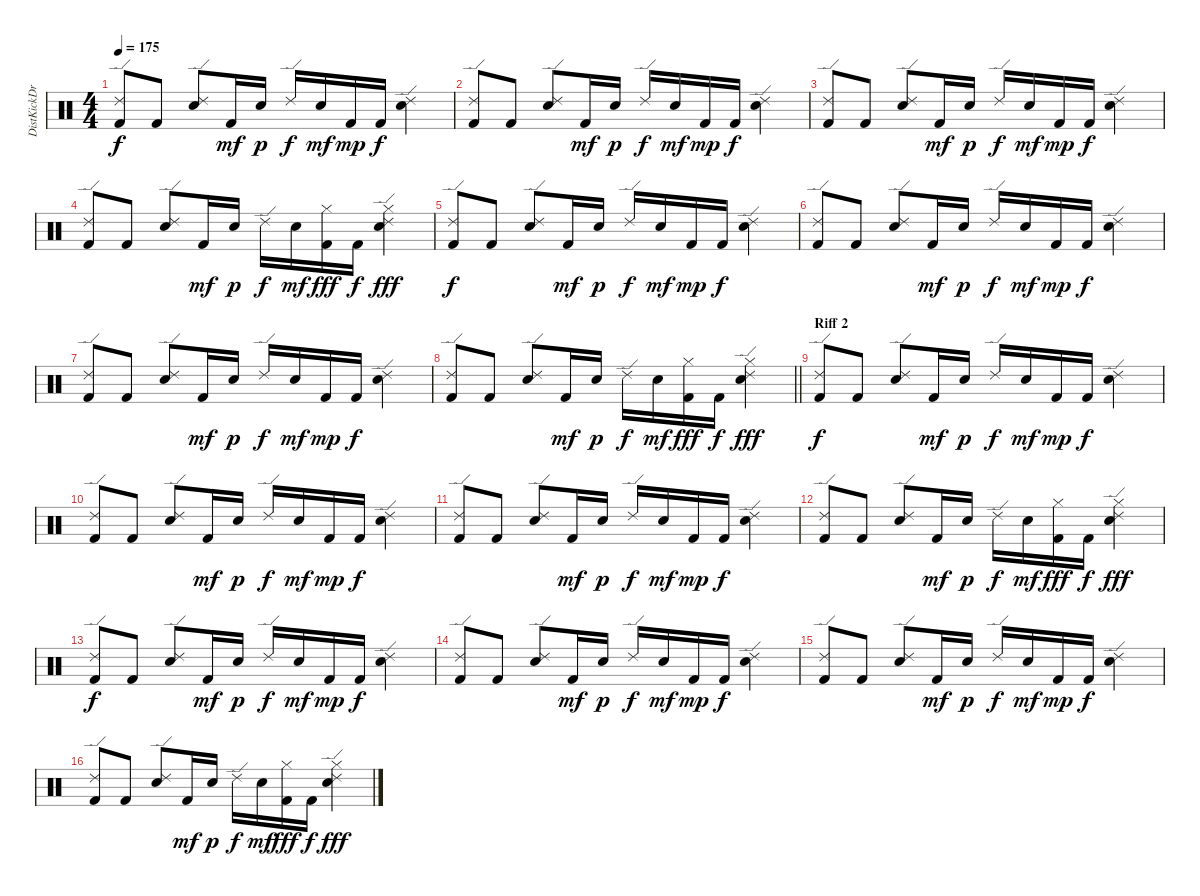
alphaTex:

\track ("DistKickDrums" "DistKickDr") {instrument percussion}
\staff {score}
\articulation defaults
\ts (4 4)
\tempo 175
\clef neutral
\ks c
("Kick (hit) 2" "Ride (edge) 2").8{dy f} "Kick (hit) 2".8 ("Snare (hit) 2" "Ride (edge) 2").8 "Kick (hit) 2".16{dy mf} "Snare (hit) 2".16{dy p} "Ride (edge) 2".16{dy f} "Snare (hit) 2".16{dy mf} "Kick (hit) 2".16{dy mp} "Kick (hit) 2".16{dy f} ("Snare (hit) 2" "Ride (edge) 2").4 |
("Kick (hit) 2" "Ride (edge) 2").8 "Kick (hit) 2".8 ("Snare (hit) 2" "Ride (edge) 2").8 "Kick (hit) 2".16{dy mf} "Snare (hit) 2".16{dy p} "Ride (edge) 2".16{dy f} "Snare (hit) 2".16{dy mf} "Kick (hit) 2".16{dy mp} "Kick (hit) 2".16{dy f} ("Snare (hit) 2" "Ride (edge) 2").4 |
("Kick (hit) 2" "Ride (edge) 2").8 "Kick (hit) 2".8 ("Snare (hit) 2" "Ride (edge) 2").8 "Kick (hit) 2".16{dy mf} "Snare (hit) 2".16{dy p} "Ride (edge) 2".16{dy f} "Snare (hit) 2".16{dy mf} "Kick (hit) 2".16{dy mp} "Kick (hit) 2".16{dy f} ("Snare (hit) 2" "Ride (edge) 2").4 |
("Kick (hit) 2" "Ride (edge) 2").8 "Kick (hit) 2".8 ("Snare (hit) 2" "Ride (edge) 2").8 "Kick (hit) 2".16{dy mf} "Snare (hit) 2".16{dy p} "Ride (edge) 2".16{dy f} "Snare (hit) 2".16{dy mf} ("Kick (hit) 2" "Cowbell high (tip)").16{dy fff} "Kick (hit) 2".16{dy f} ("Snare (hit) 2" "Ride (edge) 2" "Cowbell high (tip)").4{dy fff} |
("Kick (hit) 2" "Ride (edge) 2").8{dy f} "Kick (hit) 2".8 ("Snare (hit) 2" "Ride (edge) 2").8 "Kick (hit) 2".16{dy mf} "Snare (hit) 2".16{dy p} "Ride (edge) 2".16{dy f} "Snare (hit) 2".16{dy mf} "Kick (hit) 2".16{dy mp} "Kick (hit) 2".16{dy f} ("Snare (hit) 2" "Ride (edge) 2").4 |
("Kick (hit) 2" "Ride (edge) 2").8 "Kick (hit) 2".8 ("Snare (hit) 2" "Ride (edge) 2").8 "Kick (hit) 2".16{dy mf} "Snare (hit) 2".16{dy p} "Ride (edge) 2".16{dy f} "Snare (hit) 2".16{dy mf} "Kick (hit) 2".16{dy mp} "Kick (hit) 2".16{dy f} ("Snare (hit) 2" "Ride (edge) 2").4 |
("Kick (hit) 2" "Ride (edge) 2").8 "Kick (hit) 2".8 ("Snare (hit) 2" "Ride (edge) 2").8 "Kick (hit) 2".16{dy mf} "Snare (hit) 2".16{dy p} "Ride (edge) 2".16{dy f} "Snare (hit) 2".16{dy mf} "Kick (hit) 2".16{dy mp} "Kick (hit) 2".16{dy f} ("Snare (hit) 2" "Ride (edge) 2").4 |
\barLineRight lightlight
("Kick (hit) 2" "Ride (edge) 2").8 "Kick (hit) 2".8 ("Snare (hit) 2" "Ride (edge) 2").8 "Kick (hit) 2".16{dy mf} "Snare (hit) 2".16{dy p} "Ride (edge) 2".16{dy f} "Snare (hit) 2".16{dy mf} ("Kick (hit) 2" "Cowbell high (tip)").16{dy fff} "Kick (hit) 2".16{dy f} ("Snare (hit) 2" "Ride (edge) 2" "Cowbell high (tip)").4{dy fff} |
\section ("" "Riff 2")
("Kick (hit) 2" "Ride (edge) 2").8{dy f} "Kick (hit) 2".8 ("Snare (hit) 2" "Ride (edge) 2").8 "Kick (hit) 2".16{dy mf} "Snare (hit) 2".16{dy p} "Ride (edge) 2".16{dy f} "Snare (hit) 2".16{dy mf} "Kick (hit) 2".16{dy mp} "Kick (hit) 2".16{dy f} ("Snare (hit) 2" "Ride (edge) 2").4 |
("Kick (hit) 2" "Ride (edge) 2").8 "Kick (hit) 2".8 ("Snare (hit) 2" "Ride (edge) 2").8 "Kick (hit) 2".16{dy mf} "Snare (hit) 2".16{dy p} "Ride (edge) 2".16{dy f} "Snare (hit) 2".16{dy mf} "Kick (hit) 2".16{dy mp} "Kick (hit) 2".16{dy f} ("Snare (hit) 2" "Ride (edge) 2").4 |
("Kick (hit) 2" "Ride (edge) 2").8 "Kick (hit) 2".8 ("Snare (hit) 2" "Ride (edge) 2").8 "Kick (hit) 2".16{dy mf} "Snare (hit) 2".16{dy p} "Ride (edge) 2".16{dy f} "Snare (hit) 2".16{dy mf} "Kick (hit) 2".16{dy mp} "Kick (hit) 2".16{dy f} ("Snare (hit) 2" "Ride (edge) 2").4 |
("Kick (hit) 2" "Ride (edge) 2").8 "Kick (hit) 2".8 ("Snare (hit) 2" "Ride (edge) 2").8 "Kick (hit) 2".16{dy mf} "Snare (hit) 2".16{dy p} "Ride (edge) 2".16{dy f} "Snare (hit) 2".16{dy mf} ("Kick (hit) 2" "Cowbell high (tip)").16{dy fff} "Kick (hit) 2".16{dy f} ("Snare (hit) 2" "Ride (edge) 2" "Cowbell high (tip)").4{dy fff} |
("Kick (hit) 2" "Ride (edge) 2").8{dy f} "Kick (hit) 2".8 ("Snare (hit) 2" "Ride (edge) 2").8 "Kick (hit) 2".16{dy mf} "Snare (hit) 2".16{dy p} "Ride (edge) 2".16{dy f} "Snare (hit) 2".16{dy mf} "Kick (hit) 2".16{dy mp} "Kick (hit) 2".16{dy f} ("Snare (hit) 2" "Ride (edge) 2").4 |
("Kick (hit) 2" "Ride (edge) 2").8 "Kick (hit) 2".8 ("Snare (hit) 2" "Ride (edge) 2").8 "Kick (hit) 2".16{dy mf} "Snare (hit) 2".16{dy p} "Ride (edge) 2".16{dy f} "Snare (hit) 2".16{dy mf} "Kick (hit) 2".16{dy mp} "Kick (hit) 2".16{dy f} ("Snare (hit) 2" "Ride (edge) 2").4 |
("Kick (hit) 2" "Ride (edge) 2").8 "Kick (hit) 2".8 ("Snare (hit) 2" "Ride (edge) 2").8 "Kick (hit) 2".16{dy mf} "Snare (hit) 2".16{dy p} "Ride (edge) 2".16{dy f} "Snare (hit) 2".16{dy mf} "Kick (hit) 2".16{dy mp} "Kick (hit) 2".16{dy f} ("Snare (hit) 2" "Ride (edge) 2").4 |
("Kick (hit) 2" "Ride (edge) 2").8 "Kick (hit) 2".8 ("Snare (hit) 2" "Ride (edge) 2").8 "Kick (hit) 2".16{dy mf} "Snare (hit) 2".16{dy p} "Ride (edge) 2".16{dy f} "Snare (hit) 2".16{dy mf} ("Kick (hit) 2" "Cowbell high (tip)").16{dy fff} "Kick (hit) 2".16{dy f} ("Snare (hit) 2" "Ride (edge) 2" "Cowbell high (tip)").4{dy fff}
